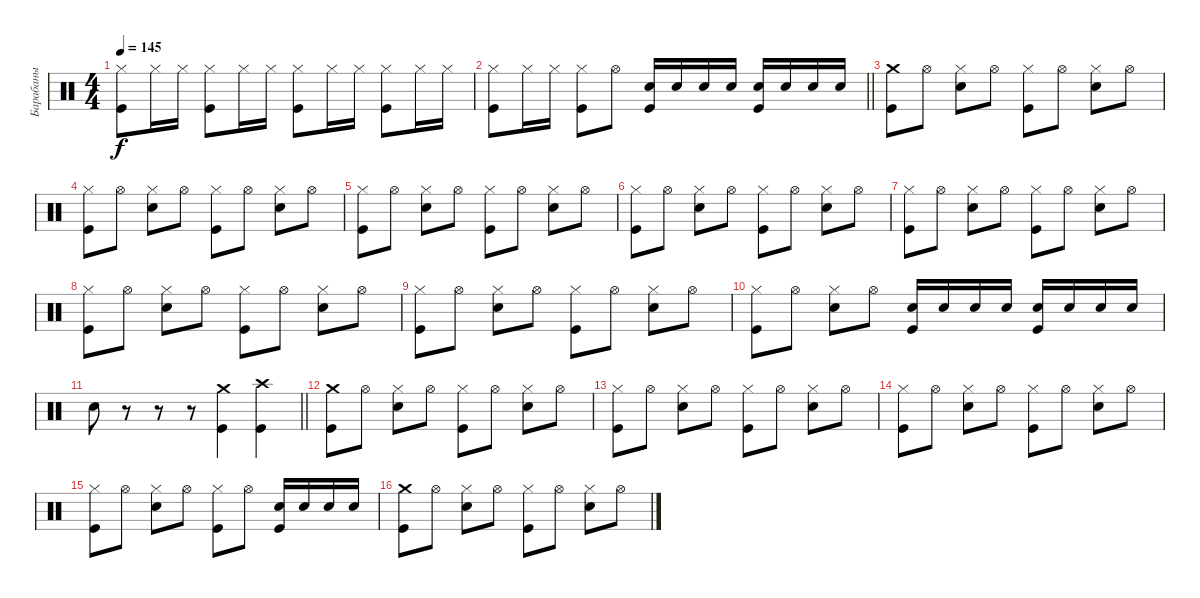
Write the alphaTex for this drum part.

\track ("Барабаны" "Барабаны") {instrument percussion}
\staff {score}
\articulation defaults
\ts (4 4)
\tempo 145
\clef neutral
\ks c
("Hi-Hat (closed)" "Kick (hit)").8{dy f} "Hi-Hat (closed)".16 "Hi-Hat (closed)".16 ("Hi-Hat (closed)" "Kick (hit)").8 "Hi-Hat (closed)".16 "Hi-Hat (closed)".16 ("Hi-Hat (closed)" "Kick (hit)").8 "Hi-Hat (closed)".16 "Hi-Hat (closed)".16 ("Hi-Hat (closed)" "Kick (hit)").8 "Hi-Hat (closed)".16 "Hi-Hat (closed)".16 |
\barLineRight lightlight
("Hi-Hat (closed)" "Kick (hit)").8 "Hi-Hat (closed)".16 "Hi-Hat (closed)".16 ("Hi-Hat (closed)" "Kick (hit)").8 "Hi-Hat (open)".8 ("Electric Snare (hit)" "Kick (hit)").16 "Electric Snare (hit)".16 "Electric Snare (hit)".16 "Electric Snare (hit)".16 ("Electric Snare (hit)" "Kick (hit)").16 "Electric Snare (hit)".16 "Electric Snare (hit)".16 "Electric Snare (hit)".16 |
("Crash medium (hit)" "Kick (hit)").8 "Hi-Hat (open)".8 ("Hi-Hat (closed)" "Electric Snare (hit)").8 "Hi-Hat (open)".8 ("Hi-Hat (closed)" "Kick (hit)").8 "Hi-Hat (open)".8 ("Hi-Hat (closed)" "Electric Snare (hit)").8 "Hi-Hat (open)".8 |
("Hi-Hat (closed)" "Kick (hit)").8 "Hi-Hat (open)".8 ("Hi-Hat (closed)" "Electric Snare (hit)").8 "Hi-Hat (open)".8 ("Hi-Hat (closed)" "Kick (hit)").8 "Hi-Hat (open)".8 ("Hi-Hat (closed)" "Electric Snare (hit)").8 "Hi-Hat (open)".8 |
("Hi-Hat (closed)" "Kick (hit)").8 "Hi-Hat (open)".8 ("Hi-Hat (closed)" "Electric Snare (hit)").8 "Hi-Hat (open)".8 ("Hi-Hat (closed)" "Kick (hit)").8 "Hi-Hat (open)".8 ("Hi-Hat (closed)" "Electric Snare (hit)").8 "Hi-Hat (open)".8 |
("Hi-Hat (closed)" "Kick (hit)").8 "Hi-Hat (open)".8 ("Hi-Hat (closed)" "Electric Snare (hit)").8 "Hi-Hat (open)".8 ("Hi-Hat (closed)" "Kick (hit)").8 "Hi-Hat (open)".8 ("Hi-Hat (closed)" "Electric Snare (hit)").8 "Hi-Hat (open)".8 |
("Hi-Hat (closed)" "Kick (hit)").8 "Hi-Hat (open)".8 ("Hi-Hat (closed)" "Electric Snare (hit)").8 "Hi-Hat (open)".8 ("Hi-Hat (closed)" "Kick (hit)").8 "Hi-Hat (open)".8 ("Hi-Hat (closed)" "Electric Snare (hit)").8 "Hi-Hat (open)".8 |
("Hi-Hat (closed)" "Kick (hit)").8 "Hi-Hat (open)".8 ("Hi-Hat (closed)" "Electric Snare (hit)").8 "Hi-Hat (open)".8 ("Hi-Hat (closed)" "Kick (hit)").8 "Hi-Hat (open)".8 ("Hi-Hat (closed)" "Electric Snare (hit)").8 "Hi-Hat (open)".8 |
("Hi-Hat (closed)" "Kick (hit)").8 "Hi-Hat (open)".8 ("Hi-Hat (closed)" "Electric Snare (hit)").8 "Hi-Hat (open)".8 ("Hi-Hat (closed)" "Kick (hit)").8 "Hi-Hat (open)".8 ("Hi-Hat (closed)" "Electric Snare (hit)").8 "Hi-Hat (open)".8 |
("Hi-Hat (closed)" "Kick (hit)").8 "Hi-Hat (open)".8 ("Hi-Hat (closed)" "Electric Snare (hit)").8 "Hi-Hat (open)".8 ("Electric Snare (hit)" "Kick (hit)").16 "Electric Snare (hit)".16 "Electric Snare (hit)".16 "Electric Snare (hit)".16 ("Electric Snare (hit)" "Kick (hit)").16 "Electric Snare (hit)".16 "Electric Snare (hit)".16 "Electric Snare (hit)".16 |
\barLineRight lightlight "Electric Snare (hit)".8
r.8 r.8 r.8 ("Crash medium (hit)" "Kick (hit)").4 ("Crash high (hit)" "Kick (hit)").4 |
("Crash medium (hit)" "Kick (hit)").8 "Hi-Hat (open)".8 ("Hi-Hat (closed)" "Electric Snare (hit)").8 "Hi-Hat (open)".8 ("Hi-Hat (closed)" "Kick (hit)").8 "Hi-Hat (open)".8 ("Hi-Hat (closed)" "Electric Snare (hit)").8 "Hi-Hat (open)".8 |
("Hi-Hat (closed)" "Kick (hit)").8 "Hi-Hat (open)".8 ("Hi-Hat (closed)" "Electric Snare (hit)").8 "Hi-Hat (open)".8 ("Hi-Hat (closed)" "Kick (hit)").8 "Hi-Hat (open)".8 ("Hi-Hat (closed)" "Electric Snare (hit)").8 "Hi-Hat (open)".8 |
("Hi-Hat (closed)" "Kick (hit)").8 "Hi-Hat (open)".8 ("Hi-Hat (closed)" "Electric Snare (hit)").8 "Hi-Hat (open)".8 ("Hi-Hat (closed)" "Kick (hit)").8 "Hi-Hat (open)".8 ("Hi-Hat (closed)" "Electric Snare (hit)").8 "Hi-Hat (open)".8 |
("Hi-Hat (closed)" "Kick (hit)").8 "Hi-Hat (open)".8 ("Hi-Hat (closed)" "Electric Snare (hit)").8 "Hi-Hat (open)".8 ("Hi-Hat (closed)" "Kick (hit)").8 "Hi-Hat (open)".8 ("Electric Snare (hit)" "Kick (hit)").16 "Electric Snare (hit)".16 "Electric Snare (hit)".16 "Electric Snare (hit)".16 |
("Crash medium (hit)" "Kick (hit)").8 "Hi-Hat (open)".8 ("Hi-Hat (closed)" "Electric Snare (hit)").8 "Hi-Hat (open)".8 ("Hi-Hat (closed)" "Kick (hit)").8 "Hi-Hat (open)".8 ("Hi-Hat (closed)" "Electric Snare (hit)").8 "Hi-Hat (open)".8
